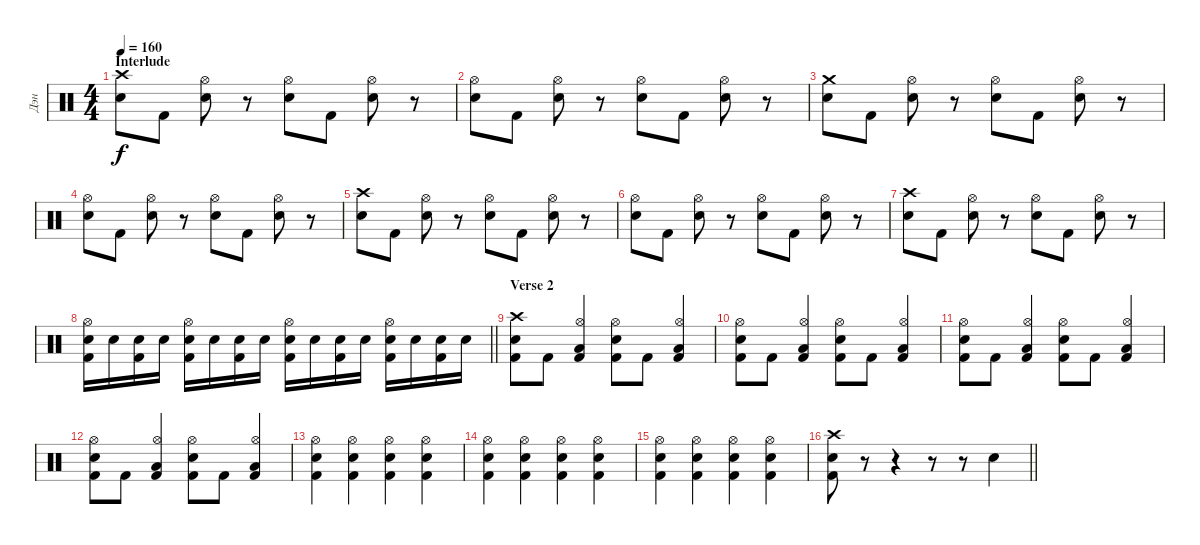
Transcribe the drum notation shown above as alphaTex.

\track ("Дэн" "Дэн") {instrument percussion}
\staff {score}
\articulation defaults
\ts (4 4)
\section ("" "Interlude")
\tempo 160
\clef neutral
\ks c
("Crash high (hit)" "Electric Snare (hit)").8{dy f} "Kick (hit) 2".8 ("Hi-Hat (open)" "Electric Snare (hit)").8 r.8 ("Hi-Hat (open)" "Electric Snare (hit)").8 "Kick (hit) 2".8 ("Hi-Hat (open)" "Electric Snare (hit)").8 r.8 |
("Hi-Hat (open)" "Electric Snare (hit)").8 "Kick (hit) 2".8 ("Hi-Hat (open)" "Electric Snare (hit)").8 r.8 ("Hi-Hat (open)" "Electric Snare (hit)").8 "Kick (hit) 2".8 ("Hi-Hat (open)" "Electric Snare (hit)").8 r.8 |
("Crash medium (hit)" "Electric Snare (hit)").8 "Kick (hit) 2".8 ("Hi-Hat (open)" "Electric Snare (hit)").8 r.8 ("Hi-Hat (open)" "Electric Snare (hit)").8 "Kick (hit) 2".8 ("Hi-Hat (open)" "Electric Snare (hit)").8 r.8 |
("Hi-Hat (open)" "Electric Snare (hit)").8 "Kick (hit) 2".8 ("Hi-Hat (open)" "Electric Snare (hit)").8 r.8 ("Hi-Hat (open)" "Electric Snare (hit)").8 "Kick (hit) 2".8 ("Hi-Hat (open)" "Electric Snare (hit)").8 r.8 |
("Crash high (hit)" "Electric Snare (hit)").8 "Kick (hit) 2".8 ("Hi-Hat (open)" "Electric Snare (hit)").8 r.8 ("Hi-Hat (open)" "Electric Snare (hit)").8 "Kick (hit) 2".8 ("Hi-Hat (open)" "Electric Snare (hit)").8 r.8 |
("Hi-Hat (open)" "Electric Snare (hit)").8 "Kick (hit) 2".8 ("Hi-Hat (open)" "Electric Snare (hit)").8 r.8 ("Hi-Hat (open)" "Electric Snare (hit)").8 "Kick (hit) 2".8 ("Hi-Hat (open)" "Electric Snare (hit)").8 r.8 |
("Crash high (hit)" "Electric Snare (hit)").8 "Kick (hit) 2".8 ("Hi-Hat (open)" "Electric Snare (hit)").8 r.8 ("Hi-Hat (open)" "Electric Snare (hit)").8 "Kick (hit) 2".8 ("Hi-Hat (open)" "Electric Snare (hit)").8 r.8 |
\barLineRight lightlight
("Hi-Hat (open)" "Electric Snare (hit)" "Kick (hit) 2").16 "Electric Snare (hit)".16 ("Electric Snare (hit)" "Kick (hit) 2").16 "Electric Snare (hit)".16 ("Hi-Hat (open)" "Electric Snare (hit)" "Kick (hit) 2").16 "Electric Snare (hit)".16 ("Electric Snare (hit)" "Kick (hit) 2").16 "Electric Snare (hit)".16 ("Hi-Hat (open)" "Electric Snare (hit)" "Kick (hit) 2").16 "Electric Snare (hit)".16 ("Electric Snare (hit)" "Kick (hit) 2").16 "Electric Snare (hit)".16 ("Hi-Hat (open)" "Electric Snare (hit)" "Kick (hit) 2").16 "Electric Snare (hit)".16 ("Electric Snare (hit)" "Kick (hit) 2").16 "Electric Snare (hit)".16 |
\section ("" "Verse 2")
("Crash high (hit)" "Electric Snare (hit)" "Kick (hit) 2").8 "Kick (hit) 2".8 ("Hi-Hat (open)" "Low Tom (hit)" "Kick (hit) 2").4 ("Hi-Hat (open)" "Electric Snare (hit)" "Kick (hit) 2").8 "Kick (hit) 2".8 ("Hi-Hat (open)" "Low Tom (hit)" "Kick (hit) 2").4 |
("Hi-Hat (open)" "Electric Snare (hit)" "Kick (hit) 2").8 "Kick (hit) 2".8 ("Hi-Hat (open)" "Low Tom (hit)" "Kick (hit) 2").4 ("Hi-Hat (open)" "Electric Snare (hit)" "Kick (hit) 2").8 "Kick (hit) 2".8 ("Hi-Hat (open)" "Low Tom (hit)" "Kick (hit) 2").4 |
("Hi-Hat (open)" "Electric Snare (hit)" "Kick (hit) 2").8 "Kick (hit) 2".8 ("Hi-Hat (open)" "Low Tom (hit)" "Kick (hit) 2").4 ("Hi-Hat (open)" "Electric Snare (hit)" "Kick (hit) 2").8 "Kick (hit) 2".8 ("Hi-Hat (open)" "Low Tom (hit)" "Kick (hit) 2").4 |
("Hi-Hat (open)" "Electric Snare (hit)" "Kick (hit) 2").8 "Kick (hit) 2".8 ("Hi-Hat (open)" "Low Tom (hit)" "Kick (hit) 2").4 ("Hi-Hat (open)" "Electric Snare (hit)" "Kick (hit) 2").8 "Kick (hit) 2".8 ("Hi-Hat (open)" "Low Tom (hit)" "Kick (hit) 2").4 |
("Hi-Hat (open)" "Electric Snare (hit)" "Kick (hit) 2").4 ("Hi-Hat (open)" "Electric Snare (hit)" "Kick (hit) 2").4 ("Hi-Hat (open)" "Electric Snare (hit)" "Kick (hit) 2").4 ("Hi-Hat (open)" "Electric Snare (hit)" "Kick (hit) 2").4 |
("Hi-Hat (open)" "Electric Snare (hit)" "Kick (hit) 2").4 ("Hi-Hat (open)" "Electric Snare (hit)" "Kick (hit) 2").4 ("Hi-Hat (open)" "Electric Snare (hit)" "Kick (hit) 2").4 ("Hi-Hat (open)" "Electric Snare (hit)" "Kick (hit) 2").4 |
("Hi-Hat (open)" "Electric Snare (hit)" "Kick (hit) 2").4 ("Hi-Hat (open)" "Electric Snare (hit)" "Kick (hit) 2").4 ("Hi-Hat (open)" "Electric Snare (hit)" "Kick (hit) 2").4 ("Hi-Hat (open)" "Electric Snare (hit)" "Kick (hit) 2").4 |
\barLineRight lightlight
("Crash high (hit)" "Electric Snare (hit)" "Kick (hit) 2").8 r.8 r.4 r.8 r.8 "Electric Snare (hit)".4
